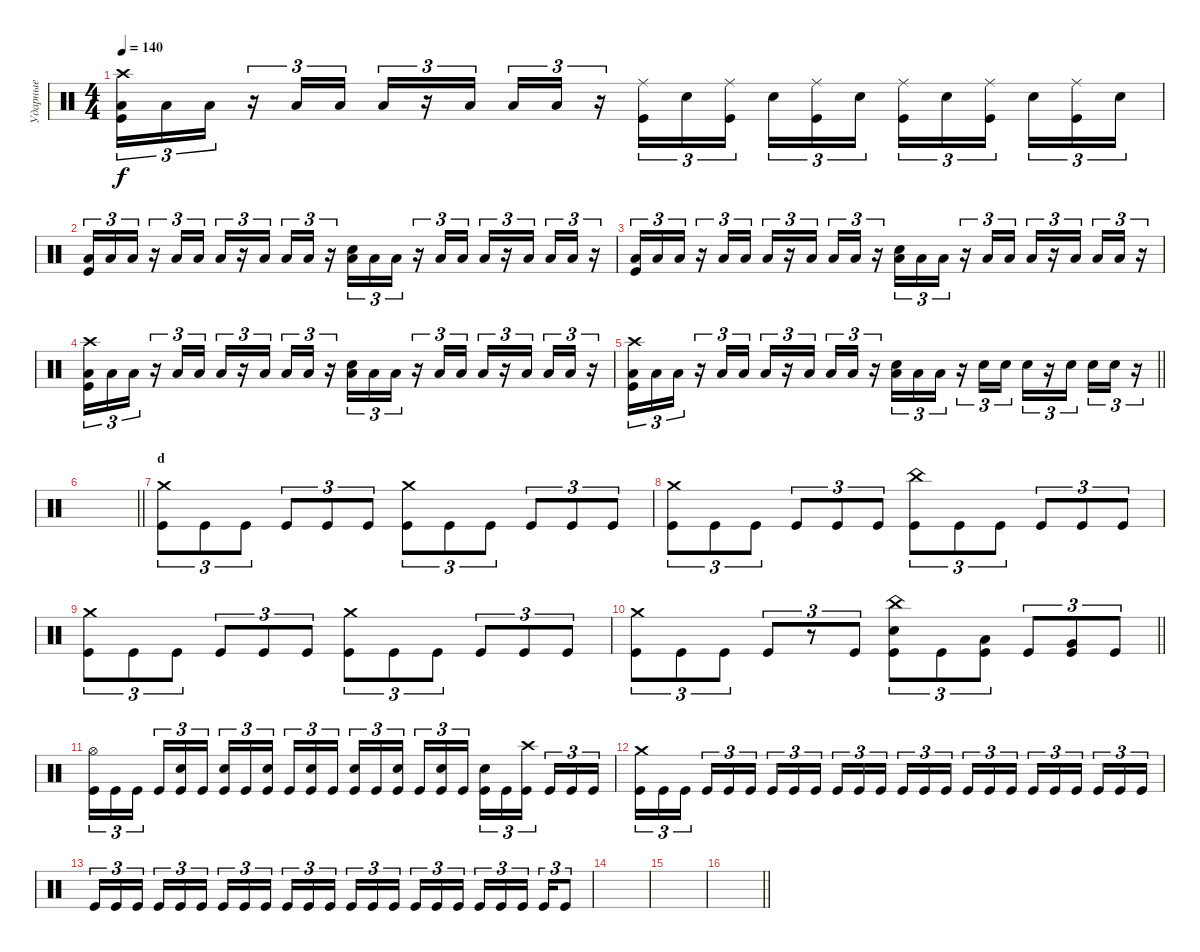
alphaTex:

\track ("Ударные" "Ударные") {instrument percussion}
\staff {score}
\articulation defaults
\ts (4 4)
\tempo 140
\clef neutral
\ks c
("Low Floor Tom (hit)" "Kick (hit)" "Crash high (hit)").16{tu (3 2) dy f} "Low Floor Tom (hit)".16{tu (3 2)} "Low Floor Tom (hit)".16{tu (3 2)} r.16{tu (3 2)} "Low Floor Tom (hit)".16{tu (3 2)} "Low Floor Tom (hit)".16{tu (3 2)} "Low Floor Tom (hit)".16{tu (3 2)} r.16{tu (3 2)} "Low Floor Tom (hit)".16{tu (3 2) beam splitsecondary} "Low Floor Tom (hit)".16{tu (3 2)} "Low Floor Tom (hit)".16{tu (3 2)} r.16{tu (3 2)} ("Ride (middle)" "Kick (hit)").16{tu (3 2)} "Electric Snare (hit)".16{tu (3 2)} ("Ride (middle)" "Kick (hit)").16{tu (3 2) beam splitsecondary} "Electric Snare (hit)".16{tu (3 2)} ("Ride (middle)" "Kick (hit)").16{tu (3 2)} "Electric Snare (hit)".16{tu (3 2)} ("Ride (middle)" "Kick (hit)").16{tu (3 2)} "Electric Snare (hit)".16{tu (3 2)} ("Ride (middle)" "Kick (hit)").16{tu (3 2) beam splitsecondary} "Electric Snare (hit)".16{tu (3 2)} ("Ride (middle)" "Kick (hit)").16{tu (3 2)} "Electric Snare (hit)".16{tu (3 2)} |
("Low Floor Tom (hit)" "Kick (hit)").16{tu (3 2)} "Low Floor Tom (hit)".16{tu (3 2)} "Low Floor Tom (hit)".16{tu (3 2)} r.16{tu (3 2)} "Low Floor Tom (hit)".16{tu (3 2)} "Low Floor Tom (hit)".16{tu (3 2)} "Low Floor Tom (hit)".16{tu (3 2)} r.16{tu (3 2)} "Low Floor Tom (hit)".16{tu (3 2) beam splitsecondary} "Low Floor Tom (hit)".16{tu (3 2)} "Low Floor Tom (hit)".16{tu (3 2)} r.16{tu (3 2)} ("Low Floor Tom (hit)" "Electric Snare (hit)").16{tu (3 2)} "Low Floor Tom (hit)".16{tu (3 2)} "Low Floor Tom (hit)".16{tu (3 2)} r.16{tu (3 2)} "Low Floor Tom (hit)".16{tu (3 2)} "Low Floor Tom (hit)".16{tu (3 2)} "Low Floor Tom (hit)".16{tu (3 2)} r.16{tu (3 2)} "Low Floor Tom (hit)".16{tu (3 2) beam splitsecondary} "Low Floor Tom (hit)".16{tu (3 2)} "Low Floor Tom (hit)".16{tu (3 2)} r.16{tu (3 2)} |
("Low Floor Tom (hit)" "Kick (hit)").16{tu (3 2)} "Low Floor Tom (hit)".16{tu (3 2)} "Low Floor Tom (hit)".16{tu (3 2)} r.16{tu (3 2)} "Low Floor Tom (hit)".16{tu (3 2)} "Low Floor Tom (hit)".16{tu (3 2)} "Low Floor Tom (hit)".16{tu (3 2)} r.16{tu (3 2)} "Low Floor Tom (hit)".16{tu (3 2) beam splitsecondary} "Low Floor Tom (hit)".16{tu (3 2)} "Low Floor Tom (hit)".16{tu (3 2)} r.16{tu (3 2)} ("Low Floor Tom (hit)" "Electric Snare (hit)").16{tu (3 2)} "Low Floor Tom (hit)".16{tu (3 2)} "Low Floor Tom (hit)".16{tu (3 2)} r.16{tu (3 2)} "Low Floor Tom (hit)".16{tu (3 2)} "Low Floor Tom (hit)".16{tu (3 2)} "Low Floor Tom (hit)".16{tu (3 2)} r.16{tu (3 2)} "Low Floor Tom (hit)".16{tu (3 2) beam splitsecondary} "Low Floor Tom (hit)".16{tu (3 2)} "Low Floor Tom (hit)".16{tu (3 2)} r.16{tu (3 2)} |
("Low Floor Tom (hit)" "Kick (hit)" "Crash high (hit)").16{tu (3 2)} "Low Floor Tom (hit)".16{tu (3 2)} "Low Floor Tom (hit)".16{tu (3 2)} r.16{tu (3 2)} "Low Floor Tom (hit)".16{tu (3 2)} "Low Floor Tom (hit)".16{tu (3 2)} "Low Floor Tom (hit)".16{tu (3 2)} r.16{tu (3 2)} "Low Floor Tom (hit)".16{tu (3 2) beam splitsecondary} "Low Floor Tom (hit)".16{tu (3 2)} "Low Floor Tom (hit)".16{tu (3 2)} r.16{tu (3 2)} ("Low Floor Tom (hit)" "Electric Snare (hit)").16{tu (3 2)} "Low Floor Tom (hit)".16{tu (3 2)} "Low Floor Tom (hit)".16{tu (3 2)} r.16{tu (3 2)} "Low Floor Tom (hit)".16{tu (3 2)} "Low Floor Tom (hit)".16{tu (3 2)} "Low Floor Tom (hit)".16{tu (3 2)} r.16{tu (3 2)} "Low Floor Tom (hit)".16{tu (3 2) beam splitsecondary} "Low Floor Tom (hit)".16{tu (3 2)} "Low Floor Tom (hit)".16{tu (3 2)} r.16{tu (3 2)} |
\barLineRight lightlight
("Low Floor Tom (hit)" "Kick (hit)" "Crash high (hit)").16{tu (3 2)} "Low Floor Tom (hit)".16{tu (3 2)} "Low Floor Tom (hit)".16{tu (3 2)} r.16{tu (3 2)} "Low Floor Tom (hit)".16{tu (3 2)} "Low Floor Tom (hit)".16{tu (3 2)} "Low Floor Tom (hit)".16{tu (3 2)} r.16{tu (3 2)} "Low Floor Tom (hit)".16{tu (3 2) beam splitsecondary} "Low Floor Tom (hit)".16{tu (3 2)} "Low Floor Tom (hit)".16{tu (3 2)} r.16{tu (3 2)} ("Low Floor Tom (hit)" "Electric Snare (hit)").16{tu (3 2)} "Low Floor Tom (hit)".16{tu (3 2)} "Low Floor Tom (hit)".16{tu (3 2)} r.16{tu (3 2)} "Electric Snare (hit)".16{tu (3 2)} "Electric Snare (hit)".16{tu (3 2)} "Electric Snare (hit)".16{tu (3 2)} r.16{tu (3 2)} "Electric Snare (hit)".16{tu (3 2) beam splitsecondary} "Electric Snare (hit)".16{tu (3 2)} "Electric Snare (hit)".16{tu (3 2)} r.16{tu (3 2)} |
\barLineRight lightlight
|
\section ("" "d")
("Crash medium (hit)" "Kick (hit)").8{tu (3 2)} "Kick (hit)".8{tu (3 2)} "Kick (hit)".8{tu (3 2)} "Kick (hit)".8{tu (3 2)} "Kick (hit)".8{tu (3 2)} "Kick (hit)".8{tu (3 2)} ("Crash medium (hit)" "Kick (hit)").8{tu (3 2)} "Kick (hit)".8{tu (3 2)} "Kick (hit)".8{tu (3 2)} "Kick (hit)".8{tu (3 2)} "Kick (hit)".8{tu (3 2)} "Kick (hit)".8{tu (3 2)} |
("Crash medium (hit)" "Kick (hit)").8{tu (3 2)} "Kick (hit)".8{tu (3 2)} "Kick (hit)".8{tu (3 2)} "Kick (hit)".8{tu (3 2)} "Kick (hit)".8{tu (3 2)} "Kick (hit)".8{tu (3 2)} ("China (hit)" "Kick (hit)").8{tu (3 2)} "Kick (hit)".8{tu (3 2)} "Kick (hit)".8{tu (3 2)} "Kick (hit)".8{tu (3 2)} "Kick (hit)".8{tu (3 2)} "Kick (hit)".8{tu (3 2)} |
("Crash medium (hit)" "Kick (hit)").8{tu (3 2)} "Kick (hit)".8{tu (3 2)} "Kick (hit)".8{tu (3 2)} "Kick (hit)".8{tu (3 2)} "Kick (hit)".8{tu (3 2)} "Kick (hit)".8{tu (3 2)} ("Crash medium (hit)" "Kick (hit)").8{tu (3 2)} "Kick (hit)".8{tu (3 2)} "Kick (hit)".8{tu (3 2)} "Kick (hit)".8{tu (3 2)} "Kick (hit)".8{tu (3 2)} "Kick (hit)".8{tu (3 2)} |
\barLineRight lightlight
("Crash medium (hit)" "Kick (hit)").8{tu (3 2)} "Kick (hit)".8{tu (3 2)} "Kick (hit)".8{tu (3 2)} "Kick (hit)".8{tu (3 2)} r.8{tu (3 2)} "Kick (hit)".8{tu (3 2)} ("China (hit)" "Electric Snare (hit)" "Kick (hit)").8{tu (3 2)} "Kick (hit)".8{tu (3 2)} ("Low Tom (hit)" "Kick (hit)").8{tu (3 2)} "Kick (hit)".8{tu (3 2)} ("Very Low Tom (hit)" "Kick (hit)").8{tu (3 2)} "Kick (hit)".8{tu (3 2)} |
("Hi-Hat (open)" "Kick (hit)").16{tu (3 2)} "Kick (hit)".16{tu (3 2)} "Kick (hit)".16{tu (3 2) beam splitsecondary} "Kick (hit)".16{tu (3 2)} ("Electric Snare (hit)" "Kick (hit)").16{tu (3 2)} "Kick (hit)".16{tu (3 2)} ("Electric Snare (hit)" "Kick (hit)").16{tu (3 2)} "Kick (hit)".16{tu (3 2)} ("Electric Snare (hit)" "Kick (hit)").16{tu (3 2) beam splitsecondary} "Kick (hit)".16{tu (3 2)} ("Electric Snare (hit)" "Kick (hit)").16{tu (3 2)} "Kick (hit)".16{tu (3 2)} ("Electric Snare (hit)" "Kick (hit)").16{tu (3 2)} "Kick (hit)".16{tu (3 2)} ("Electric Snare (hit)" "Kick (hit)").16{tu (3 2) beam splitsecondary} "Kick (hit)".16{tu (3 2)} ("Electric Snare (hit)" "Kick (hit)").16{tu (3 2)} "Kick (hit)".16{tu (3 2)} ("Electric Snare (hit)" "Kick (hit)").16{tu (3 2)} "Kick (hit)".16{tu (3 2)} ("Crash high (hit)" "Kick (hit)").16{tu (3 2) beam splitsecondary} "Kick (hit)".16{tu (3 2)} "Kick (hit)".16{tu (3 2)} "Kick (hit)".16{tu (3 2)} |
("Crash medium (hit)" "Kick (hit)").16{tu (3 2)} "Kick (hit)".16{tu (3 2)} "Kick (hit)".16{tu (3 2) beam splitsecondary} "Kick (hit)".16{tu (3 2)} "Kick (hit)".16{tu (3 2)} "Kick (hit)".16{tu (3 2)} "Kick (hit)".16{tu (3 2)} "Kick (hit)".16{tu (3 2)} "Kick (hit)".16{tu (3 2) beam splitsecondary} "Kick (hit)".16{tu (3 2)} "Kick (hit)".16{tu (3 2)} "Kick (hit)".16{tu (3 2)} "Kick (hit)".16{tu (3 2)} "Kick (hit)".16{tu (3 2)} "Kick (hit)".16{tu (3 2) beam splitsecondary} "Kick (hit)".16{tu (3 2)} "Kick (hit)".16{tu (3 2)} "Kick (hit)".16{tu (3 2)} "Kick (hit)".16{tu (3 2)} "Kick (hit)".16{tu (3 2)} "Kick (hit)".16{tu (3 2) beam splitsecondary} "Kick (hit)".16{tu (3 2)} "Kick (hit)".16{tu (3 2)} "Kick (hit)".16{tu (3 2)} |
"Kick (hit)".16{tu (3 2)} "Kick (hit)".16{tu (3 2)} "Kick (hit)".16{tu (3 2) beam splitsecondary} "Kick (hit)".16{tu (3 2)} "Kick (hit)".16{tu (3 2)} "Kick (hit)".16{tu (3 2)} "Kick (hit)".16{tu (3 2)} "Kick (hit)".16{tu (3 2)} "Kick (hit)".16{tu (3 2) beam splitsecondary} "Kick (hit)".16{tu (3 2)} "Kick (hit)".16{tu (3 2)} "Kick (hit)".16{tu (3 2)} "Kick (hit)".16{tu (3 2)} "Kick (hit)".16{tu (3 2)} "Kick (hit)".16{tu (3 2) beam splitsecondary} "Kick (hit)".16{tu (3 2)} "Kick (hit)".16{tu (3 2)} "Kick (hit)".16{tu (3 2)} "Kick (hit)".16{tu (3 2)} "Kick (hit)".16{tu (3 2)} "Kick (hit)".16{tu (3 2) beam splitsecondary} "Kick (hit)".16{tu (3 2)} "Kick (hit)".8{tu (3 2)} |
|
|
\barLineRight lightlight
